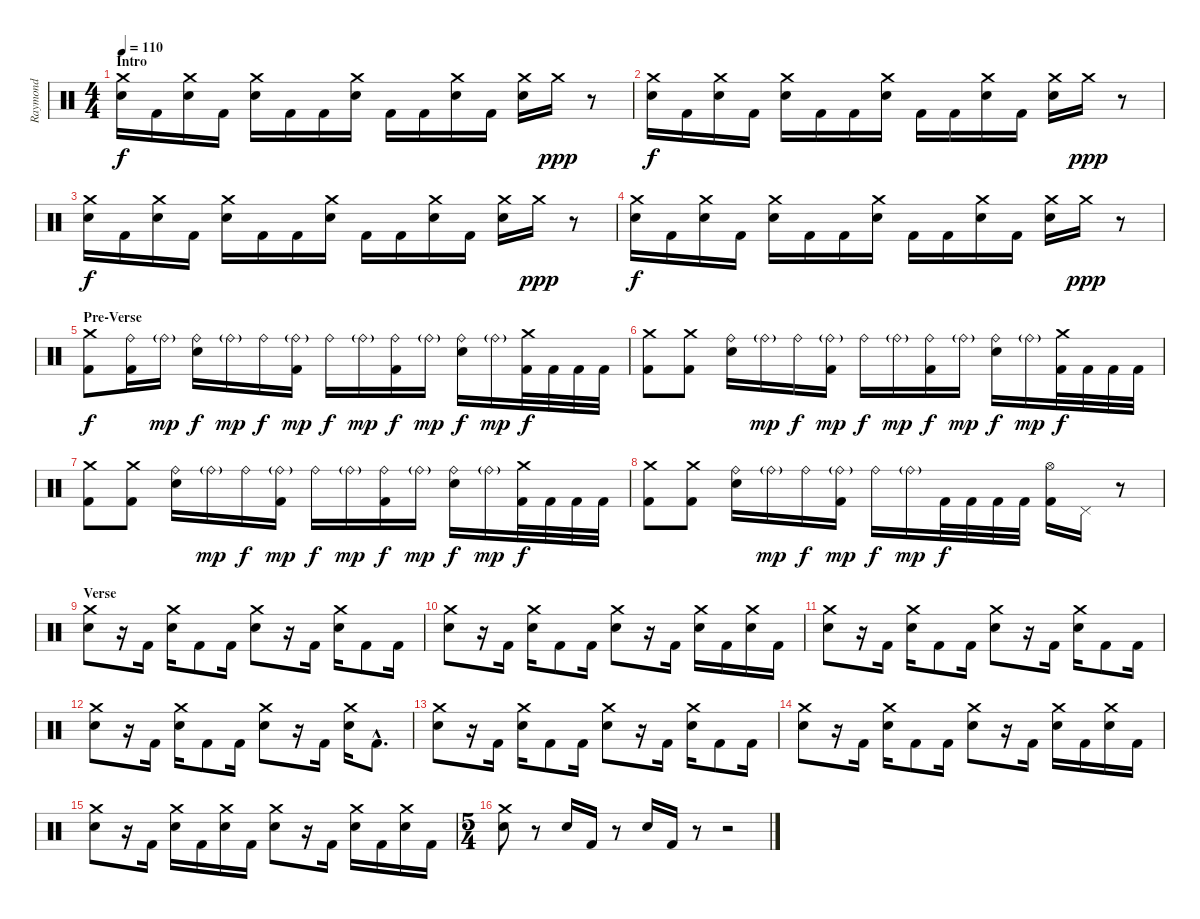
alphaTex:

\track ("Raymond" "Raymond") {instrument percussion}
\staff {score}
\articulation defaults
\ts (4 4)
\section ("" "Intro")
\tempo 110
\clef neutral
\ks c
("Crash medium (hit)" "Electric Snare (hit)").16{dy f} "Kick (hit) 2".16 ("Crash medium (hit)" "Electric Snare (hit)").16 "Kick (hit) 2".16 ("Crash medium (hit)" "Electric Snare (hit)").16 "Kick (hit) 2".16 "Kick (hit) 2".16 ("Crash medium (hit)" "Electric Snare (hit)").16 "Kick (hit) 2".16 "Kick (hit) 2".16 ("Crash medium (hit)" "Electric Snare (hit)").16 "Kick (hit) 2".16 ("Crash medium (hit)" "Electric Snare (hit)").16 "Crash medium (hit)".16{dy ppp} r.8 |
("Crash medium (hit)" "Electric Snare (hit)").16{dy f} "Kick (hit) 2".16 ("Crash medium (hit)" "Electric Snare (hit)").16 "Kick (hit) 2".16 ("Crash medium (hit)" "Electric Snare (hit)").16 "Kick (hit) 2".16 "Kick (hit) 2".16 ("Crash medium (hit)" "Electric Snare (hit)").16 "Kick (hit) 2".16 "Kick (hit) 2".16 ("Crash medium (hit)" "Electric Snare (hit)").16 "Kick (hit) 2".16 ("Crash medium (hit)" "Electric Snare (hit)").16 "Crash medium (hit)".16{dy ppp} r.8 |
("Crash medium (hit)" "Electric Snare (hit)").16{dy f} "Kick (hit) 2".16 ("Crash medium (hit)" "Electric Snare (hit)").16 "Kick (hit) 2".16 ("Crash medium (hit)" "Electric Snare (hit)").16 "Kick (hit) 2".16 "Kick (hit) 2".16 ("Crash medium (hit)" "Electric Snare (hit)").16 "Kick (hit) 2".16 "Kick (hit) 2".16 ("Crash medium (hit)" "Electric Snare (hit)").16 "Kick (hit) 2".16 ("Crash medium (hit)" "Electric Snare (hit)").16 "Crash medium (hit)".16{dy ppp} r.8 |
("Crash medium (hit)" "Electric Snare (hit)").16{dy f} "Kick (hit) 2".16 ("Crash medium (hit)" "Electric Snare (hit)").16 "Kick (hit) 2".16 ("Crash medium (hit)" "Electric Snare (hit)").16 "Kick (hit) 2".16 "Kick (hit) 2".16 ("Crash medium (hit)" "Electric Snare (hit)").16 "Kick (hit) 2".16 "Kick (hit) 2".16 ("Crash medium (hit)" "Electric Snare (hit)").16 "Kick (hit) 2".16 ("Crash medium (hit)" "Electric Snare (hit)").16 "Crash medium (hit)".16{dy ppp} r.8 |
\section ("" "Pre-Verse")
("Crash medium (hit)" "Kick (hit) 2").8{dy f} ("Ride (bell)" "Kick (hit) 2").16 "Ride (bell)"{g}.16{dy mp} ("Ride (bell)" "Electric Snare (hit)").16{dy f} "Ride (bell)"{g}.16{dy mp} "Ride (bell)".16{dy f} ("Ride (bell)"{g} "Kick (hit) 2").16{dy mp} "Ride (bell)".16{dy f} "Ride (bell)"{g}.16{dy mp} ("Ride (bell)" "Kick (hit) 2").16{dy f} "Ride (bell)"{g}.16{dy mp} ("Ride (bell)" "Electric Snare (hit)").16{dy f} "Ride (bell)"{g}.16{dy mp} ("Crash medium (hit)" "Kick (hit) 2").32{dy f} "Kick (hit) 2".32 "Kick (hit) 2".32 "Kick (hit) 2".32 |
("Crash medium (hit)" "Kick (hit) 2").8 ("Crash medium (hit)" "Kick (hit) 2").8 ("Ride (bell)" "Electric Snare (hit)").16 "Ride (bell)"{g}.16{dy mp} "Ride (bell)".16{dy f} ("Ride (bell)"{g} "Kick (hit) 2").16{dy mp} "Ride (bell)".16{dy f} "Ride (bell)"{g}.16{dy mp} ("Ride (bell)" "Kick (hit) 2").16{dy f} "Ride (bell)"{g}.16{dy mp} ("Ride (bell)" "Electric Snare (hit)").16{dy f} "Ride (bell)"{g}.16{dy mp} ("Crash medium (hit)" "Kick (hit) 2").32{dy f} "Kick (hit) 2".32 "Kick (hit) 2".32 "Kick (hit) 2".32 |
("Crash medium (hit)" "Kick (hit) 2").8 ("Crash medium (hit)" "Kick (hit) 2").8 ("Ride (bell)" "Electric Snare (hit)").16 "Ride (bell)"{g}.16{dy mp} "Ride (bell)".16{dy f} ("Ride (bell)"{g} "Kick (hit) 2").16{dy mp} "Ride (bell)".16{dy f} "Ride (bell)"{g}.16{dy mp} ("Ride (bell)" "Kick (hit) 2").16{dy f} "Ride (bell)"{g}.16{dy mp} ("Ride (bell)" "Electric Snare (hit)").16{dy f} "Ride (bell)"{g}.16{dy mp} ("Crash medium (hit)" "Kick (hit) 2").32{dy f} "Kick (hit) 2".32 "Kick (hit) 2".32 "Kick (hit) 2".32 |
("Crash medium (hit)" "Kick (hit) 2").8 ("Crash medium (hit)" "Kick (hit) 2").8 ("Ride (bell)" "Electric Snare (hit)").16 "Ride (bell)"{g}.16{dy mp} "Ride (bell)".16{dy f} ("Ride (bell)"{g} "Kick (hit) 2").16{dy mp} "Ride (bell)".16{dy f} "Ride (bell)"{g}.16{dy mp} "Kick (hit) 2".32{dy f} "Kick (hit) 2".32 "Kick (hit) 2".32 "Kick (hit) 2".32 ("Hi-Hat (open)" "Kick (hit) 2").16 "Pedal Hi-Hat (hit)".16 r.8 |
\section ("" "Verse")
("Crash medium (hit)" "Electric Snare (hit)").8 r.16 "Kick (hit) 2".16 ("Crash medium (hit)" "Electric Snare (hit)").16 "Kick (hit) 2".8 "Kick (hit) 2".16 ("Crash medium (hit)" "Electric Snare (hit)").8 r.16 "Kick (hit) 2".16 ("Crash medium (hit)" "Electric Snare (hit)").16 "Kick (hit) 2".8 "Kick (hit) 2".16 |
("Crash medium (hit)" "Electric Snare (hit)").8 r.16 "Kick (hit) 2".16 ("Crash medium (hit)" "Electric Snare (hit)").16 "Kick (hit) 2".8 "Kick (hit) 2".16 ("Crash medium (hit)" "Electric Snare (hit)").8 r.16 "Kick (hit) 2".16 ("Crash medium (hit)" "Electric Snare (hit)").16 "Kick (hit) 2".16 ("Crash medium (hit)" "Electric Snare (hit)").16 "Kick (hit) 2".16 |
("Crash medium (hit)" "Electric Snare (hit)").8 r.16 "Kick (hit) 2".16 ("Crash medium (hit)" "Electric Snare (hit)").16 "Kick (hit) 2".8 "Kick (hit) 2".16 ("Crash medium (hit)" "Electric Snare (hit)").8 r.16 "Kick (hit) 2".16 ("Crash medium (hit)" "Electric Snare (hit)").16 "Kick (hit) 2".8 "Kick (hit) 2".16 |
("Crash medium (hit)" "Electric Snare (hit)").8 r.16 "Kick (hit) 2".16 ("Crash medium (hit)" "Electric Snare (hit)").16 "Kick (hit) 2".8 "Kick (hit) 2".16 ("Crash medium (hit)" "Electric Snare (hit)").8 r.16 "Kick (hit) 2".16 ("Crash medium (hit)" "Electric Snare (hit)").16 "Kick (hit) 2"{hac}.8{d} |
("Crash medium (hit)" "Electric Snare (hit)").8 r.16 "Kick (hit) 2".16 ("Crash medium (hit)" "Electric Snare (hit)").16 "Kick (hit) 2".8 "Kick (hit) 2".16 ("Crash medium (hit)" "Electric Snare (hit)").8 r.16 "Kick (hit) 2".16 ("Crash medium (hit)" "Electric Snare (hit)").16 "Kick (hit) 2".8 "Kick (hit) 2".16 |
("Crash medium (hit)" "Electric Snare (hit)").8 r.16 "Kick (hit) 2".16 ("Crash medium (hit)" "Electric Snare (hit)").16 "Kick (hit) 2".8 "Kick (hit) 2".16 ("Crash medium (hit)" "Electric Snare (hit)").8 r.16 "Kick (hit) 2".16 ("Crash medium (hit)" "Electric Snare (hit)").16 "Kick (hit) 2".16 ("Crash medium (hit)" "Electric Snare (hit)").16 "Kick (hit) 2".16 |
("Crash medium (hit)" "Electric Snare (hit)").8 r.16 "Kick (hit) 2".16 ("Crash medium (hit)" "Electric Snare (hit)").16 "Kick (hit) 2".16 ("Crash medium (hit)" "Electric Snare (hit)").16 "Kick (hit) 2".16 ("Crash medium (hit)" "Electric Snare (hit)").8 r.16 "Kick (hit) 2".16 ("Crash medium (hit)" "Electric Snare (hit)").16 "Kick (hit) 2".16 ("Crash medium (hit)" "Electric Snare (hit)").16 "Kick (hit) 2".16 |
\ts (5 4)
("Crash medium (hit)" "Electric Snare (hit)").8 r.8 "Electric Snare (hit)".16 "Kick (hit) 2".16 r.8 "Electric Snare (hit)".16 "Kick (hit) 2".16 r.8 r.2
